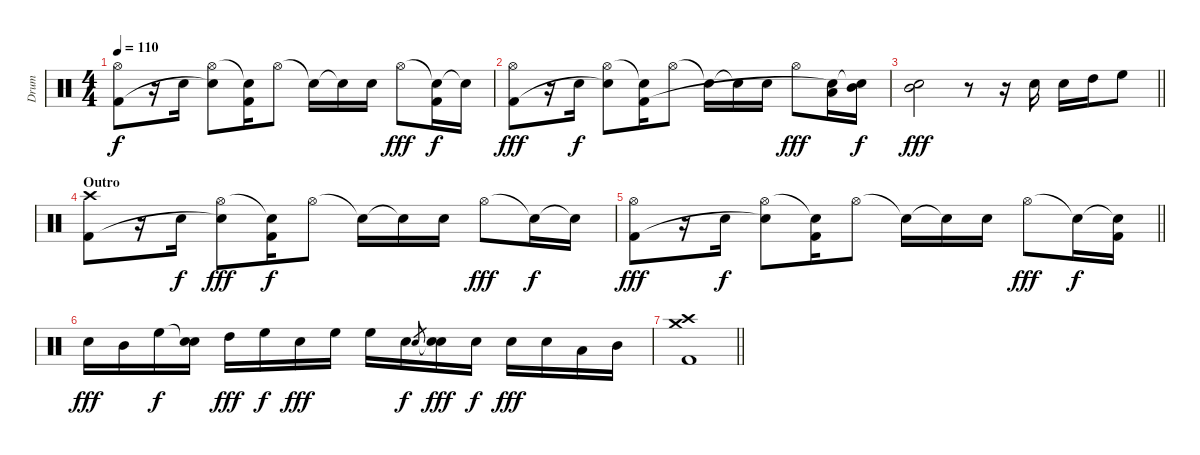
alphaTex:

\track ("Drum" "Drum") {instrument percussion}
\staff {score}
\articulation defaults
\ts (4 4)
\tempo 110
\clef neutral
\ks c
("Hi-Hat (open)" "Kick (hit) 2").8{dy f} r.16 "Electric Snare (hit)".16 ("Hi-Hat (open)" "Electric Snare (hit)"{t}).8 ("Snare (hit)"{t} "Kick (hit) 2").16 "Hi-Hat (open)".8 "Snare (hit)"{t}.16 "Snare (hit)"{t}.16 "Electric Snare (hit)".16 "Hi-Hat (open)".8{dy fff} ("Snare (hit)"{t} "Kick (hit) 2").16{dy f} "Snare (hit)"{t}.16 |
("Hi-Hat (open)" "Kick (hit) 2").8{dy fff} r.16 "Electric Snare (hit)".16{dy f} ("Hi-Hat (open)" "Electric Snare (hit)"{t}).8 ("Snare (hit)"{t} "Kick (hit) 2").16 "Hi-Hat (open)".8 "Snare (hit)"{t}.16 "Snare (hit)"{t}.16 "Electric Snare (hit)".16 "Hi-Hat (open)".8{dy fff} ("Low Tom (hit)" "Snare (hit)"{t}).16 ("Mid Tom (hit)" "Snare (hit)"{t}).16{dy f} |
\barLineRight lightlight
("Electric Snare (hit)" "Mid Tom (hit)").2{dy fff} r.8 r.16 "Electric Snare (hit)".16 "Electric Snare (hit)".16 "High Tom (hit)".16 "High Floor Tom (hit)".8 |
\section ("" "Outro")
("Crash high (hit)" "Kick (hit) 2").8 r.16 "Electric Snare (hit)".16{dy f} ("Hi-Hat (open)" "Electric Snare (hit)"{t}).8{dy fff} ("Snare (hit)"{t} "Kick (hit) 2").16{dy f} "Hi-Hat (open)".8 "Snare (hit)"{t}.16 "Snare (hit)"{t}.16 "Electric Snare (hit)".16 "Hi-Hat (open)".8{dy fff} "Snare (hit)"{t}.16{dy f} "Snare (hit)"{t}.16 |
\barLineRight lightlight
("Hi-Hat (open)" "Kick (hit) 2").8{dy fff} r.16 "Electric Snare (hit)".16{dy f} ("Hi-Hat (open)" "Electric Snare (hit)"{t}).8 ("Snare (hit)"{t} "Kick (hit) 2").16 "Hi-Hat (open)".8 "Snare (hit)"{t}.16 "Snare (hit)"{t}.16 "Electric Snare (hit)".16 "Hi-Hat (open)".8{dy fff} "Snare (hit)"{t}.16{dy f} ("Snare (hit)"{t} "Kick (hit) 2").16 |
"Electric Snare (hit)".16{dy fff} "Mid Tom (hit)".16 "High Floor Tom (hit)".16{dy f} ("Snare (hit)"{t} "Electric Snare (hit)").16 "High Tom (hit)".16{dy fff} "High Floor Tom (hit)".16{dy f} "Electric Snare (hit)".16{dy fff} "High Floor Tom (hit)".16 "High Floor Tom (hit)".16 "Electric Snare (hit)".16{dy f} "Electric Snare (hit)".8{gr} ("Snare (hit)"{t} "Electric Snare (hit)").16{dy fff} "Electric Snare (hit)".16{dy f} "Electric Snare (hit)".16{dy fff} "Electric Snare (hit)".16 "Low Tom (hit)".16 "Mid Tom (hit)".16 |
\barLineRight lightlight
("Crash high (hit)" "Crash medium (hit)" "Kick (hit) 2").1
